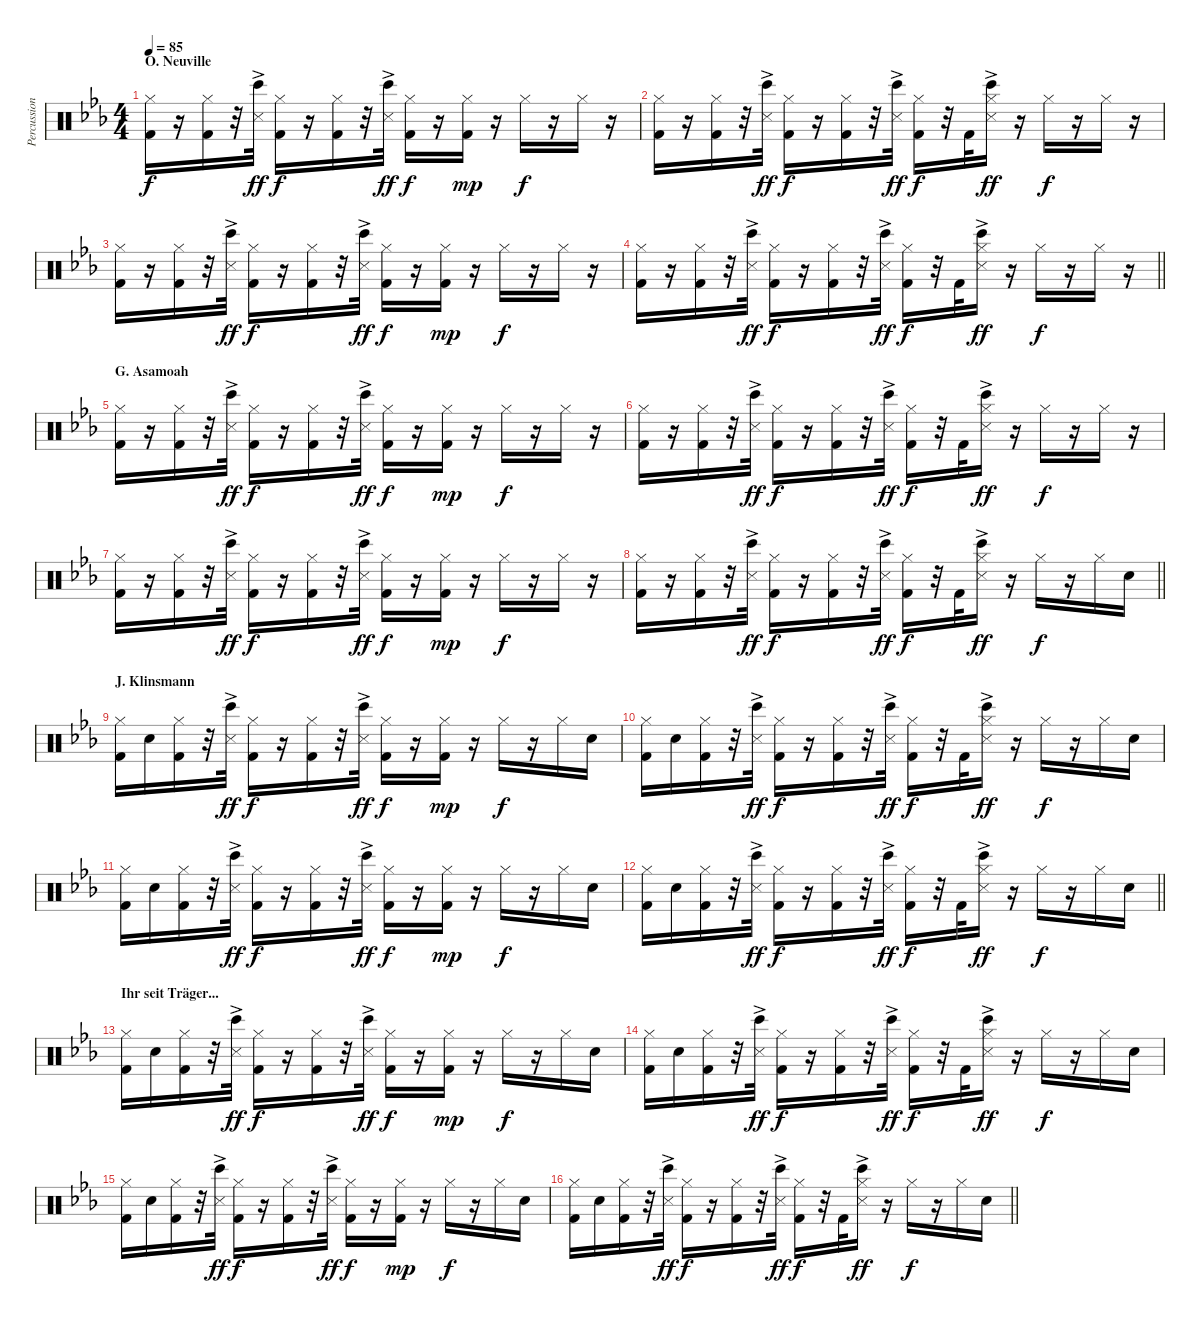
\track ("Percussion" "Percussion") {instrument percussion}
\staff {score}
\articulation defaults
\ts (4 4)
\section ("" "O. Neuville")
\tempo 85
\clef neutral
\ks cminor
("Hi-Hat (closed)" "Kick (hit) 2").16{dy f} r.16 ("Hi-Hat (closed)" "Kick (hit) 2").16 r.32 ("Bongo High (hit)" "Metronome (hit)"{ac}).32{dy ff} ("Hi-Hat (closed)" "Kick (hit) 2").16{dy f} r.16 ("Hi-Hat (closed)" "Kick (hit) 2").16 r.32 ("Bongo High (hit)" "Metronome (hit)"{ac}).32{dy ff} ("Hi-Hat (closed)" "Kick (hit) 2").16{dy f} r.16 ("Hi-Hat (closed)" "Kick (hit) 2").16{dy mp} r.16 "Hi-Hat (closed)".16{dy f} r.16 "Hi-Hat (closed)".16 r.16 |
("Hi-Hat (closed)" "Kick (hit) 2").16 r.16 ("Hi-Hat (closed)" "Kick (hit) 2").16 r.32 ("Bongo High (hit)" "Metronome (hit)"{ac}).32{dy ff} ("Hi-Hat (closed)" "Kick (hit) 2").16{dy f} r.16 ("Hi-Hat (closed)" "Kick (hit) 2").16 r.32 ("Bongo High (hit)" "Metronome (hit)"{ac}).32{dy ff} ("Hi-Hat (closed)" "Kick (hit) 2").16{dy f} r.32 "Kick (hit) 2".32 ("Hi-Hat (closed)" "Bongo High (hit)" "Metronome (hit)"{ac}).16{dy ff} r.16 "Hi-Hat (closed)".16{dy f} r.16 "Hi-Hat (closed)".16 r.16 |
("Hi-Hat (closed)" "Kick (hit) 2").16 r.16 ("Hi-Hat (closed)" "Kick (hit) 2").16 r.32 ("Bongo High (hit)" "Metronome (hit)"{ac}).32{dy ff} ("Hi-Hat (closed)" "Kick (hit) 2").16{dy f} r.16 ("Hi-Hat (closed)" "Kick (hit) 2").16 r.32 ("Bongo High (hit)" "Metronome (hit)"{ac}).32{dy ff} ("Hi-Hat (closed)" "Kick (hit) 2").16{dy f} r.16 ("Hi-Hat (closed)" "Kick (hit) 2").16{dy mp} r.16 "Hi-Hat (closed)".16{dy f} r.16 "Hi-Hat (closed)".16 r.16 |
\barLineRight lightlight
("Hi-Hat (closed)" "Kick (hit) 2").16 r.16 ("Hi-Hat (closed)" "Kick (hit) 2").16 r.32 ("Bongo High (hit)" "Metronome (hit)"{ac}).32{dy ff} ("Hi-Hat (closed)" "Kick (hit) 2").16{dy f} r.16 ("Hi-Hat (closed)" "Kick (hit) 2").16 r.32 ("Bongo High (hit)" "Metronome (hit)"{ac}).32{dy ff} ("Hi-Hat (closed)" "Kick (hit) 2").16{dy f} r.32 "Kick (hit) 2".32 ("Hi-Hat (closed)" "Bongo High (hit)" "Metronome (hit)"{ac}).16{dy ff} r.16 "Hi-Hat (closed)".16{dy f} r.16 "Hi-Hat (closed)".16 r.16 |
\section ("" "G. Asamoah")
("Hi-Hat (closed)" "Kick (hit) 2").16 r.16 ("Hi-Hat (closed)" "Kick (hit) 2").16 r.32 ("Bongo High (hit)" "Metronome (hit)"{ac}).32{dy ff} ("Hi-Hat (closed)" "Kick (hit) 2").16{dy f} r.16 ("Hi-Hat (closed)" "Kick (hit) 2").16 r.32 ("Bongo High (hit)" "Metronome (hit)"{ac}).32{dy ff} ("Hi-Hat (closed)" "Kick (hit) 2").16{dy f} r.16 ("Hi-Hat (closed)" "Kick (hit) 2").16{dy mp} r.16 "Hi-Hat (closed)".16{dy f} r.16 "Hi-Hat (closed)".16 r.16 |
("Hi-Hat (closed)" "Kick (hit) 2").16 r.16 ("Hi-Hat (closed)" "Kick (hit) 2").16 r.32 ("Bongo High (hit)" "Metronome (hit)"{ac}).32{dy ff} ("Hi-Hat (closed)" "Kick (hit) 2").16{dy f} r.16 ("Hi-Hat (closed)" "Kick (hit) 2").16 r.32 ("Bongo High (hit)" "Metronome (hit)"{ac}).32{dy ff} ("Hi-Hat (closed)" "Kick (hit) 2").16{dy f} r.32 "Kick (hit) 2".32 ("Hi-Hat (closed)" "Bongo High (hit)" "Metronome (hit)"{ac}).16{dy ff} r.16 "Hi-Hat (closed)".16{dy f} r.16 "Hi-Hat (closed)".16 r.16 |
("Hi-Hat (closed)" "Kick (hit) 2").16 r.16 ("Hi-Hat (closed)" "Kick (hit) 2").16 r.32 ("Bongo High (hit)" "Metronome (hit)"{ac}).32{dy ff} ("Hi-Hat (closed)" "Kick (hit) 2").16{dy f} r.16 ("Hi-Hat (closed)" "Kick (hit) 2").16 r.32 ("Bongo High (hit)" "Metronome (hit)"{ac}).32{dy ff} ("Hi-Hat (closed)" "Kick (hit) 2").16{dy f} r.16 ("Hi-Hat (closed)" "Kick (hit) 2").16{dy mp} r.16 "Hi-Hat (closed)".16{dy f} r.16 "Hi-Hat (closed)".16 r.16 |
\barLineRight lightlight
("Hi-Hat (closed)" "Kick (hit) 2").16 r.16 ("Hi-Hat (closed)" "Kick (hit) 2").16 r.32 ("Bongo High (hit)" "Metronome (hit)"{ac}).32{dy ff} ("Hi-Hat (closed)" "Kick (hit) 2").16{dy f} r.16 ("Hi-Hat (closed)" "Kick (hit) 2").16 r.32 ("Bongo High (hit)" "Metronome (hit)"{ac}).32{dy ff} ("Hi-Hat (closed)" "Kick (hit) 2").16{dy f} r.32 "Kick (hit) 2".32 ("Hi-Hat (closed)" "Bongo High (hit)" "Metronome (hit)"{ac}).16{dy ff} r.16 "Hi-Hat (closed)".16{dy f} r.16 "Hi-Hat (closed)".16 "Snare (hit) 2".16 |
\section ("" "J. Klinsmann")
("Hi-Hat (closed)" "Kick (hit) 2").16 "Snare (hit) 2".16 ("Hi-Hat (closed)" "Kick (hit) 2").16 r.32 ("Bongo High (hit)" "Metronome (hit)"{ac}).32{dy ff} ("Hi-Hat (closed)" "Kick (hit) 2").16{dy f} r.16 ("Hi-Hat (closed)" "Kick (hit) 2").16 r.32 ("Bongo High (hit)" "Metronome (hit)"{ac}).32{dy ff} ("Hi-Hat (closed)" "Kick (hit) 2").16{dy f} r.16 ("Hi-Hat (closed)" "Kick (hit) 2").16{dy mp} r.16 "Hi-Hat (closed)".16{dy f} r.16 "Hi-Hat (closed)".16 "Snare (hit) 2".16 |
("Hi-Hat (closed)" "Kick (hit) 2").16 "Snare (hit) 2".16 ("Hi-Hat (closed)" "Kick (hit) 2").16 r.32 ("Bongo High (hit)" "Metronome (hit)"{ac}).32{dy ff} ("Hi-Hat (closed)" "Kick (hit) 2").16{dy f} r.16 ("Hi-Hat (closed)" "Kick (hit) 2").16 r.32 ("Bongo High (hit)" "Metronome (hit)"{ac}).32{dy ff} ("Hi-Hat (closed)" "Kick (hit) 2").16{dy f} r.32 "Kick (hit) 2".32 ("Hi-Hat (closed)" "Bongo High (hit)" "Metronome (hit)"{ac}).16{dy ff} r.16 "Hi-Hat (closed)".16{dy f} r.16 "Hi-Hat (closed)".16 "Snare (hit) 2".16 |
("Hi-Hat (closed)" "Kick (hit) 2").16 "Snare (hit) 2".16 ("Hi-Hat (closed)" "Kick (hit) 2").16 r.32 ("Bongo High (hit)" "Metronome (hit)"{ac}).32{dy ff} ("Hi-Hat (closed)" "Kick (hit) 2").16{dy f} r.16 ("Hi-Hat (closed)" "Kick (hit) 2").16 r.32 ("Bongo High (hit)" "Metronome (hit)"{ac}).32{dy ff} ("Hi-Hat (closed)" "Kick (hit) 2").16{dy f} r.16 ("Hi-Hat (closed)" "Kick (hit) 2").16{dy mp} r.16 "Hi-Hat (closed)".16{dy f} r.16 "Hi-Hat (closed)".16 "Snare (hit) 2".16 |
\barLineRight lightlight
("Hi-Hat (closed)" "Kick (hit) 2").16 "Snare (hit) 2".16 ("Hi-Hat (closed)" "Kick (hit) 2").16 r.32 ("Bongo High (hit)" "Metronome (hit)"{ac}).32{dy ff} ("Hi-Hat (closed)" "Kick (hit) 2").16{dy f} r.16 ("Hi-Hat (closed)" "Kick (hit) 2").16 r.32 ("Bongo High (hit)" "Metronome (hit)"{ac}).32{dy ff} ("Hi-Hat (closed)" "Kick (hit) 2").16{dy f} r.32 "Kick (hit) 2".32 ("Hi-Hat (closed)" "Bongo High (hit)" "Metronome (hit)"{ac}).16{dy ff} r.16 "Hi-Hat (closed)".16{dy f} r.16 "Hi-Hat (closed)".16 "Snare (hit) 2".16 |
\section ("" "Ihr seit Träger...")
("Hi-Hat (closed)" "Kick (hit) 2").16 "Snare (hit) 2".16 ("Hi-Hat (closed)" "Kick (hit) 2").16 r.32 ("Bongo High (hit)" "Metronome (hit)"{ac}).32{dy ff} ("Hi-Hat (closed)" "Kick (hit) 2").16{dy f} r.16 ("Hi-Hat (closed)" "Kick (hit) 2").16 r.32 ("Bongo High (hit)" "Metronome (hit)"{ac}).32{dy ff} ("Hi-Hat (closed)" "Kick (hit) 2").16{dy f} r.16 ("Hi-Hat (closed)" "Kick (hit) 2").16{dy mp} r.16 "Hi-Hat (closed)".16{dy f} r.16 "Hi-Hat (closed)".16 "Snare (hit) 2".16 |
("Hi-Hat (closed)" "Kick (hit) 2").16 "Snare (hit) 2".16 ("Hi-Hat (closed)" "Kick (hit) 2").16 r.32 ("Bongo High (hit)" "Metronome (hit)"{ac}).32{dy ff} ("Hi-Hat (closed)" "Kick (hit) 2").16{dy f} r.16 ("Hi-Hat (closed)" "Kick (hit) 2").16 r.32 ("Bongo High (hit)" "Metronome (hit)"{ac}).32{dy ff} ("Hi-Hat (closed)" "Kick (hit) 2").16{dy f} r.32 "Kick (hit) 2".32 ("Hi-Hat (closed)" "Bongo High (hit)" "Metronome (hit)"{ac}).16{dy ff} r.16 "Hi-Hat (closed)".16{dy f} r.16 "Hi-Hat (closed)".16 "Snare (hit) 2".16 |
("Hi-Hat (closed)" "Kick (hit) 2").16 "Snare (hit) 2".16 ("Hi-Hat (closed)" "Kick (hit) 2").16 r.32 ("Bongo High (hit)" "Metronome (hit)"{ac}).32{dy ff} ("Hi-Hat (closed)" "Kick (hit) 2").16{dy f} r.16 ("Hi-Hat (closed)" "Kick (hit) 2").16 r.32 ("Bongo High (hit)" "Metronome (hit)"{ac}).32{dy ff} ("Hi-Hat (closed)" "Kick (hit) 2").16{dy f} r.16 ("Hi-Hat (closed)" "Kick (hit) 2").16{dy mp} r.16 "Hi-Hat (closed)".16{dy f} r.16 "Hi-Hat (closed)".16 "Snare (hit) 2".16 |
\barLineRight lightlight
("Hi-Hat (closed)" "Kick (hit) 2").16 "Snare (hit) 2".16 ("Hi-Hat (closed)" "Kick (hit) 2").16 r.32 ("Bongo High (hit)" "Metronome (hit)"{ac}).32{dy ff} ("Hi-Hat (closed)" "Kick (hit) 2").16{dy f} r.16 ("Hi-Hat (closed)" "Kick (hit) 2").16 r.32 ("Bongo High (hit)" "Metronome (hit)"{ac}).32{dy ff} ("Hi-Hat (closed)" "Kick (hit) 2").16{dy f} r.32 "Kick (hit) 2".32 ("Hi-Hat (closed)" "Bongo High (hit)" "Metronome (hit)"{ac}).16{dy ff} r.16 "Hi-Hat (closed)".16{dy f} r.16 "Hi-Hat (closed)".16 "Snare (hit) 2".16
